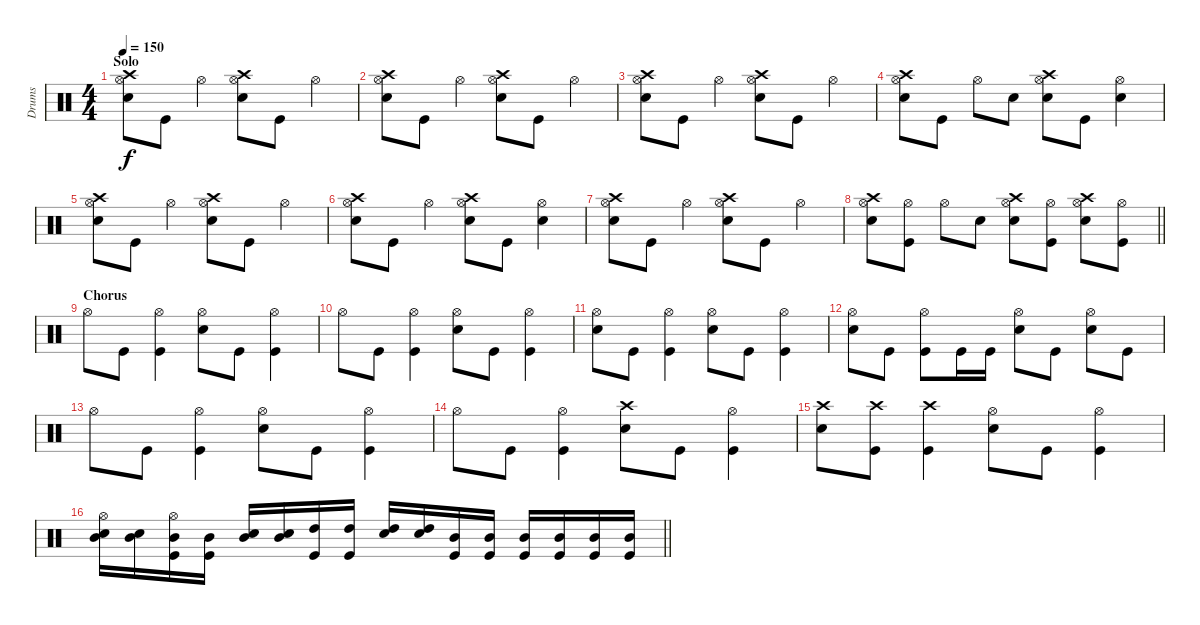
\track ("Drums" "Drums") {instrument percussion}
\staff {score}
\articulation defaults
\ts (4 4)
\section ("" "Solo")
\tempo 150
\clef neutral
\ks c
("Crash high (hit)" "Hi-Hat (open)" "Snare (hit) 2").8{dy f} "Kick (hit)".8 "Hi-Hat (open)".4 ("Crash high (hit)" "Hi-Hat (open)" "Snare (hit) 2").8 "Kick (hit)".8 "Hi-Hat (open)".4 |
("Crash high (hit)" "Hi-Hat (open)" "Snare (hit) 2").8 "Kick (hit)".8 "Hi-Hat (open)".4 ("Crash high (hit)" "Hi-Hat (open)" "Snare (hit) 2").8 "Kick (hit)".8 "Hi-Hat (open)".4 |
("Crash high (hit)" "Hi-Hat (open)" "Snare (hit) 2").8 "Kick (hit)".8 "Hi-Hat (open)".4 ("Crash high (hit)" "Hi-Hat (open)" "Snare (hit) 2").8 "Kick (hit)".8 "Hi-Hat (open)".4 |
("Crash high (hit)" "Hi-Hat (open)" "Snare (hit) 2").8 "Kick (hit)".8 "Hi-Hat (open)".8 "Snare (hit) 2".8 ("Crash high (hit)" "Hi-Hat (open)" "Snare (hit) 2").8 "Kick (hit)".8 ("Hi-Hat (open)" "Snare (hit) 2").4 |
("Crash high (hit)" "Hi-Hat (open)" "Snare (hit) 2").8 "Kick (hit)".8 "Hi-Hat (open)".4 ("Crash high (hit)" "Hi-Hat (open)" "Snare (hit) 2").8 "Kick (hit)".8 "Hi-Hat (open)".4 |
("Crash high (hit)" "Hi-Hat (open)" "Snare (hit) 2").8 "Kick (hit)".8 "Hi-Hat (open)".4 ("Crash high (hit)" "Hi-Hat (open)" "Snare (hit) 2").8 "Kick (hit)".8 ("Hi-Hat (open)" "Snare (hit) 2").4 |
("Crash high (hit)" "Hi-Hat (open)" "Snare (hit) 2").8 "Kick (hit)".8 "Hi-Hat (open)".4 ("Crash high (hit)" "Hi-Hat (open)" "Snare (hit) 2").8 "Kick (hit)".8 "Hi-Hat (open)".4 |
\barLineRight lightlight
("Crash high (hit)" "Hi-Hat (open)" "Snare (hit) 2").8 ("Hi-Hat (open)" "Kick (hit)").8 "Hi-Hat (open)".8 "Snare (hit) 2".8 ("Crash high (hit)" "Hi-Hat (open)" "Snare (hit) 2").8 ("Hi-Hat (open)" "Kick (hit)").8 ("Crash high (hit)" "Hi-Hat (open)" "Snare (hit) 2").8 ("Hi-Hat (open)" "Kick (hit)").8 |
\section ("" "Chorus")
"Hi-Hat (open)".8 "Kick (hit)".8 ("Hi-Hat (open)" "Kick (hit)").4 ("Hi-Hat (open)" "Snare (hit) 2").8 "Kick (hit)".8 ("Hi-Hat (open)" "Kick (hit)").4 |
"Hi-Hat (open)".8 "Kick (hit)".8 ("Hi-Hat (open)" "Kick (hit)").4 ("Hi-Hat (open)" "Snare (hit) 2").8 "Kick (hit)".8 ("Hi-Hat (open)" "Kick (hit)").4 |
("Hi-Hat (open)" "Snare (hit) 2").8 "Kick (hit)".8 ("Hi-Hat (open)" "Kick (hit)").4 ("Hi-Hat (open)" "Snare (hit) 2").8 "Kick (hit)".8 ("Hi-Hat (open)" "Kick (hit)").4 |
("Hi-Hat (open)" "Snare (hit) 2").8 "Kick (hit)".8 ("Hi-Hat (open)" "Kick (hit)").8 "Kick (hit)".16 "Kick (hit)".16 ("Hi-Hat (open)" "Snare (hit) 2").8 "Kick (hit)".8 ("Hi-Hat (open)" "Snare (hit) 2").8 "Kick (hit)".8 |
"Hi-Hat (open)".8 "Kick (hit)".8 ("Hi-Hat (open)" "Kick (hit)").4 ("Hi-Hat (open)" "Snare (hit) 2").8 "Kick (hit)".8 ("Hi-Hat (open)" "Kick (hit)").4 |
"Hi-Hat (open)".8 "Kick (hit)".8 ("Hi-Hat (open)" "Kick (hit)").4 ("Crash high (hit)" "Snare (hit) 2").8 "Kick (hit)".8 ("Hi-Hat (open)" "Kick (hit)").4 |
("Crash high (hit)" "Snare (hit) 2").8 ("Crash high (hit)" "Kick (hit)").8 ("Crash high (hit)" "Kick (hit)").4 ("Hi-Hat (open)" "Snare (hit) 2").8 "Kick (hit)".8 ("Hi-Hat (open)" "Kick (hit)").4 |
\barLineRight lightlight
("Hi-Hat (open)" "Mid Tom (hit)" "Snare (hit) 2").16 ("Mid Tom (hit)" "Snare (hit) 2").16 ("Hi-Hat (open)" "Mid Tom (hit)" "Kick (hit)").16 ("Mid Tom (hit)" "Kick (hit)").16 ("Mid Tom (hit)" "Snare (hit) 2").16 ("Mid Tom (hit)" "Snare (hit) 2").16 ("High Tom (hit)" "Kick (hit)").16 ("High Tom (hit)" "Kick (hit)").16 ("High Tom (hit)" "Snare (hit) 2").16 ("High Tom (hit)" "Snare (hit) 2").16 ("Mid Tom (hit)" "Kick (hit)").16 ("Mid Tom (hit)" "Kick (hit)").16 ("Mid Tom (hit)" "Kick (hit)").16 ("Mid Tom (hit)" "Kick (hit)").16 ("Mid Tom (hit)" "Kick (hit)").16 ("Mid Tom (hit)" "Kick (hit)").16
